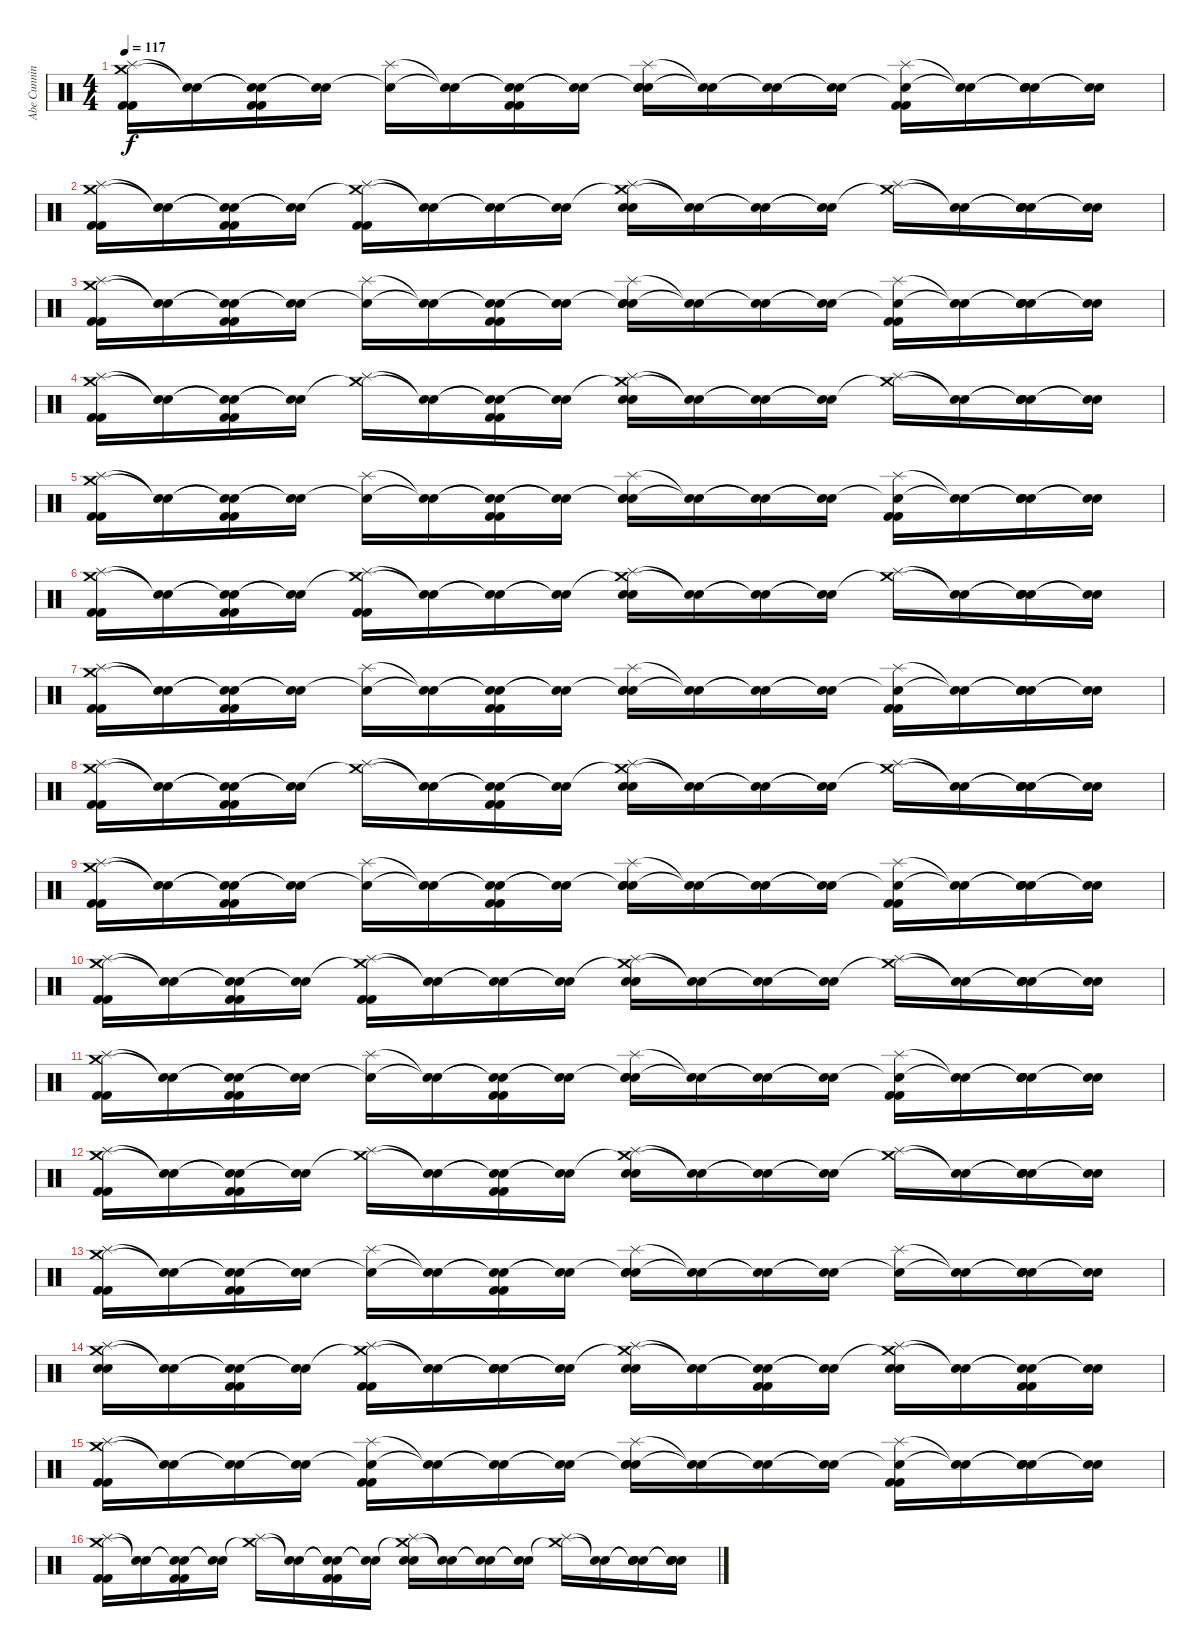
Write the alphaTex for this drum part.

\track ("Abe Cunningham" "Abe Cunnin") {instrument percussion}
\staff {score}
\articulation defaults
\ts (4 4)
\tempo 117
\clef neutral
\ks c
("Splash (hit)" "Crash medium (hit)" "Kick (hit) 2" "Kick (hit) 2").16{dy f} ("Snare (hit)"{t} "Snare (hit)"{t}).16 ("Snare (hit)"{t} "Snare (hit)"{t} "Kick (hit) 2" "Kick (hit) 2").16 ("Snare (hit)"{t} "Snare (hit)"{t}).16 ("Splash (hit)" "Snare (hit)"{t}).16 ("Snare (hit)"{t} "Snare (hit)"{t}).16 ("Snare (hit)"{t} "Snare (hit)"{t} "Kick (hit) 2" "Kick (hit) 2").16 ("Snare (hit)"{t} "Snare (hit)"{t}).16 ("Splash (hit)" "Snare (hit)"{t} "Electric Snare (hit)" "Electric Snare (hit)").16 ("Snare (hit)"{t} "Snare (hit)"{t}).16 ("Snare (hit)"{t} "Snare (hit)"{t}).16 ("Snare (hit)"{t} "Snare (hit)"{t}).16 ("Splash (hit)" "Snare (hit)"{t} "Kick (hit) 2" "Kick (hit) 2").16 ("Snare (hit)"{t} "Snare (hit)"{t}).16 ("Snare (hit)"{t} "Snare (hit)"{t} "Electric Snare (hit)" "Electric Snare (hit)").16 ("Snare (hit)"{t} "Snare (hit)"{t}).16 |
("Splash (hit)" "Crash medium (hit)" "Kick (hit) 2" "Kick (hit) 2").16 ("Snare (hit)"{t} "Snare (hit)"{t}).16 ("Snare (hit)"{t} "Snare (hit)"{t} "Kick (hit) 2" "Kick (hit) 2").16 ("Snare (hit)"{t} "Snare (hit)"{t}).16 ("Splash (hit)" "Crash medium (hit)"{t} "Kick (hit) 2" "Kick (hit) 2").16 ("Snare (hit)"{t} "Snare (hit)"{t}).16 ("Snare (hit)"{t} "Snare (hit)"{t}).16 ("Snare (hit)"{t} "Snare (hit)"{t}).16 ("Splash (hit)" "Crash medium (hit)"{t} "Electric Snare (hit)" "Electric Snare (hit)").16 ("Snare (hit)"{t} "Snare (hit)"{t}).16 ("Snare (hit)"{t} "Snare (hit)"{t}).16 ("Snare (hit)"{t} "Snare (hit)"{t}).16 ("Splash (hit)" "Crash medium (hit)"{t}).16 ("Snare (hit)"{t} "Snare (hit)"{t}).16 ("Snare (hit)"{t} "Snare (hit)"{t} "Electric Snare (hit)" "Electric Snare (hit)").16 ("Snare (hit)"{t} "Snare (hit)"{t}).16 |
("Splash (hit)" "Crash medium (hit)" "Kick (hit) 2" "Kick (hit) 2").16 ("Snare (hit)"{t} "Snare (hit)"{t}).16 ("Snare (hit)"{t} "Snare (hit)"{t} "Kick (hit) 2" "Kick (hit) 2").16 ("Snare (hit)"{t} "Snare (hit)"{t}).16 ("Splash (hit)" "Snare (hit)"{t}).16 ("Snare (hit)"{t} "Snare (hit)"{t}).16 ("Snare (hit)"{t} "Snare (hit)"{t} "Kick (hit) 2" "Kick (hit) 2").16 ("Snare (hit)"{t} "Snare (hit)"{t}).16 ("Splash (hit)" "Snare (hit)"{t} "Electric Snare (hit)" "Electric Snare (hit)").16 ("Snare (hit)"{t} "Snare (hit)"{t}).16 ("Snare (hit)"{t} "Snare (hit)"{t}).16 ("Snare (hit)"{t} "Snare (hit)"{t}).16 ("Splash (hit)" "Snare (hit)"{t} "Kick (hit) 2" "Kick (hit) 2").16 ("Snare (hit)"{t} "Snare (hit)"{t}).16 ("Snare (hit)"{t} "Snare (hit)"{t} "Electric Snare (hit)" "Electric Snare (hit)").16 ("Snare (hit)"{t} "Snare (hit)"{t}).16 |
("Splash (hit)" "Crash medium (hit)" "Kick (hit) 2" "Kick (hit) 2").16 ("Snare (hit)"{t} "Snare (hit)"{t}).16 ("Snare (hit)"{t} "Snare (hit)"{t} "Kick (hit) 2" "Kick (hit) 2").16 ("Snare (hit)"{t} "Snare (hit)"{t}).16 ("Splash (hit)" "Crash medium (hit)"{t}).16 ("Snare (hit)"{t} "Snare (hit)"{t}).16 ("Snare (hit)"{t} "Snare (hit)"{t} "Kick (hit) 2" "Kick (hit) 2").16 ("Snare (hit)"{t} "Snare (hit)"{t}).16 ("Splash (hit)" "Crash medium (hit)"{t} "Electric Snare (hit)" "Electric Snare (hit)").16 ("Snare (hit)"{t} "Snare (hit)"{t}).16 ("Snare (hit)"{t} "Snare (hit)"{t}).16 ("Snare (hit)"{t} "Snare (hit)"{t}).16 ("Splash (hit)" "Crash medium (hit)"{t}).16 ("Snare (hit)"{t} "Snare (hit)"{t}).16 ("Snare (hit)"{t} "Snare (hit)"{t} "Electric Snare (hit)" "Electric Snare (hit)").16 ("Snare (hit)"{t} "Snare (hit)"{t}).16 |
("Splash (hit)" "Crash medium (hit)" "Kick (hit) 2" "Kick (hit) 2").16 ("Snare (hit)"{t} "Snare (hit)"{t}).16 ("Snare (hit)"{t} "Snare (hit)"{t} "Kick (hit) 2" "Kick (hit) 2").16 ("Snare (hit)"{t} "Snare (hit)"{t}).16 ("Splash (hit)" "Snare (hit)"{t}).16 ("Snare (hit)"{t} "Snare (hit)"{t}).16 ("Snare (hit)"{t} "Snare (hit)"{t} "Kick (hit) 2" "Kick (hit) 2").16 ("Snare (hit)"{t} "Snare (hit)"{t}).16 ("Splash (hit)" "Snare (hit)"{t} "Electric Snare (hit)" "Electric Snare (hit)").16 ("Snare (hit)"{t} "Snare (hit)"{t}).16 ("Snare (hit)"{t} "Snare (hit)"{t}).16 ("Snare (hit)"{t} "Snare (hit)"{t}).16 ("Splash (hit)" "Snare (hit)"{t} "Kick (hit) 2" "Kick (hit) 2").16 ("Snare (hit)"{t} "Snare (hit)"{t}).16 ("Snare (hit)"{t} "Snare (hit)"{t} "Electric Snare (hit)" "Electric Snare (hit)").16 ("Snare (hit)"{t} "Snare (hit)"{t}).16 |
("Splash (hit)" "Crash medium (hit)" "Kick (hit) 2" "Kick (hit) 2").16 ("Snare (hit)"{t} "Snare (hit)"{t}).16 ("Snare (hit)"{t} "Snare (hit)"{t} "Kick (hit) 2" "Kick (hit) 2").16 ("Snare (hit)"{t} "Snare (hit)"{t}).16 ("Splash (hit)" "Crash medium (hit)"{t} "Kick (hit) 2" "Kick (hit) 2").16 ("Snare (hit)"{t} "Snare (hit)"{t}).16 ("Snare (hit)"{t} "Snare (hit)"{t}).16 ("Snare (hit)"{t} "Snare (hit)"{t}).16 ("Splash (hit)" "Crash medium (hit)"{t} "Electric Snare (hit)" "Electric Snare (hit)").16 ("Snare (hit)"{t} "Snare (hit)"{t}).16 ("Snare (hit)"{t} "Snare (hit)"{t}).16 ("Snare (hit)"{t} "Snare (hit)"{t}).16 ("Splash (hit)" "Crash medium (hit)"{t}).16 ("Snare (hit)"{t} "Snare (hit)"{t}).16 ("Snare (hit)"{t} "Snare (hit)"{t} "Electric Snare (hit)" "Electric Snare (hit)").16 ("Snare (hit)"{t} "Snare (hit)"{t}).16 |
("Splash (hit)" "Crash medium (hit)" "Kick (hit) 2" "Kick (hit) 2").16 ("Snare (hit)"{t} "Snare (hit)"{t}).16 ("Snare (hit)"{t} "Snare (hit)"{t} "Kick (hit) 2" "Kick (hit) 2").16 ("Snare (hit)"{t} "Snare (hit)"{t}).16 ("Splash (hit)" "Snare (hit)"{t}).16 ("Snare (hit)"{t} "Snare (hit)"{t}).16 ("Snare (hit)"{t} "Snare (hit)"{t} "Kick (hit) 2" "Kick (hit) 2").16 ("Snare (hit)"{t} "Snare (hit)"{t}).16 ("Splash (hit)" "Snare (hit)"{t} "Electric Snare (hit)" "Electric Snare (hit)").16 ("Snare (hit)"{t} "Snare (hit)"{t}).16 ("Snare (hit)"{t} "Snare (hit)"{t}).16 ("Snare (hit)"{t} "Snare (hit)"{t}).16 ("Splash (hit)" "Snare (hit)"{t} "Kick (hit) 2" "Kick (hit) 2").16 ("Snare (hit)"{t} "Snare (hit)"{t}).16 ("Snare (hit)"{t} "Snare (hit)"{t} "Electric Snare (hit)" "Electric Snare (hit)").16 ("Snare (hit)"{t} "Snare (hit)"{t}).16 |
("Splash (hit)" "Crash medium (hit)" "Kick (hit) 2" "Kick (hit) 2").16 ("Snare (hit)"{t} "Snare (hit)"{t}).16 ("Snare (hit)"{t} "Snare (hit)"{t} "Kick (hit) 2" "Kick (hit) 2").16 ("Snare (hit)"{t} "Snare (hit)"{t}).16 ("Splash (hit)" "Crash medium (hit)"{t}).16 ("Snare (hit)"{t} "Snare (hit)"{t}).16 ("Snare (hit)"{t} "Snare (hit)"{t} "Kick (hit) 2" "Kick (hit) 2").16 ("Snare (hit)"{t} "Snare (hit)"{t}).16 ("Splash (hit)" "Crash medium (hit)"{t} "Electric Snare (hit)" "Electric Snare (hit)").16 ("Snare (hit)"{t} "Snare (hit)"{t}).16 ("Snare (hit)"{t} "Snare (hit)"{t}).16 ("Snare (hit)"{t} "Snare (hit)"{t}).16 ("Splash (hit)" "Crash medium (hit)"{t}).16 ("Snare (hit)"{t} "Snare (hit)"{t}).16 ("Snare (hit)"{t} "Snare (hit)"{t} "Electric Snare (hit)" "Electric Snare (hit)").16 ("Snare (hit)"{t} "Snare (hit)"{t}).16 |
("Splash (hit)" "Crash medium (hit)" "Kick (hit) 2" "Kick (hit) 2").16 ("Snare (hit)"{t} "Snare (hit)"{t}).16 ("Snare (hit)"{t} "Snare (hit)"{t} "Kick (hit) 2" "Kick (hit) 2").16 ("Snare (hit)"{t} "Snare (hit)"{t}).16 ("Splash (hit)" "Snare (hit)"{t}).16 ("Snare (hit)"{t} "Snare (hit)"{t}).16 ("Snare (hit)"{t} "Snare (hit)"{t} "Kick (hit) 2" "Kick (hit) 2").16 ("Snare (hit)"{t} "Snare (hit)"{t}).16 ("Splash (hit)" "Snare (hit)"{t} "Electric Snare (hit)" "Electric Snare (hit)").16 ("Snare (hit)"{t} "Snare (hit)"{t}).16 ("Snare (hit)"{t} "Snare (hit)"{t}).16 ("Snare (hit)"{t} "Snare (hit)"{t}).16 ("Splash (hit)" "Snare (hit)"{t} "Kick (hit) 2" "Kick (hit) 2").16 ("Snare (hit)"{t} "Snare (hit)"{t}).16 ("Snare (hit)"{t} "Snare (hit)"{t} "Electric Snare (hit)" "Electric Snare (hit)").16 ("Snare (hit)"{t} "Snare (hit)"{t}).16 |
("Splash (hit)" "Crash medium (hit)" "Kick (hit) 2" "Kick (hit) 2").16 ("Snare (hit)"{t} "Snare (hit)"{t}).16 ("Snare (hit)"{t} "Snare (hit)"{t} "Kick (hit) 2" "Kick (hit) 2").16 ("Snare (hit)"{t} "Snare (hit)"{t}).16 ("Splash (hit)" "Crash medium (hit)"{t} "Kick (hit) 2" "Kick (hit) 2").16 ("Snare (hit)"{t} "Snare (hit)"{t}).16 ("Snare (hit)"{t} "Snare (hit)"{t}).16 ("Snare (hit)"{t} "Snare (hit)"{t}).16 ("Splash (hit)" "Crash medium (hit)"{t} "Electric Snare (hit)" "Electric Snare (hit)").16 ("Snare (hit)"{t} "Snare (hit)"{t}).16 ("Snare (hit)"{t} "Snare (hit)"{t}).16 ("Snare (hit)"{t} "Snare (hit)"{t}).16 ("Splash (hit)" "Crash medium (hit)"{t}).16 ("Snare (hit)"{t} "Snare (hit)"{t}).16 ("Snare (hit)"{t} "Snare (hit)"{t} "Electric Snare (hit)" "Electric Snare (hit)").16 ("Snare (hit)"{t} "Snare (hit)"{t}).16 |
("Splash (hit)" "Crash medium (hit)" "Kick (hit) 2" "Kick (hit) 2").16 ("Snare (hit)"{t} "Snare (hit)"{t}).16 ("Snare (hit)"{t} "Snare (hit)"{t} "Kick (hit) 2" "Kick (hit) 2").16 ("Snare (hit)"{t} "Snare (hit)"{t}).16 ("Splash (hit)" "Snare (hit)"{t}).16 ("Snare (hit)"{t} "Snare (hit)"{t}).16 ("Snare (hit)"{t} "Snare (hit)"{t} "Kick (hit) 2" "Kick (hit) 2").16 ("Snare (hit)"{t} "Snare (hit)"{t}).16 ("Splash (hit)" "Snare (hit)"{t} "Electric Snare (hit)" "Electric Snare (hit)").16 ("Snare (hit)"{t} "Snare (hit)"{t}).16 ("Snare (hit)"{t} "Snare (hit)"{t}).16 ("Snare (hit)"{t} "Snare (hit)"{t}).16 ("Splash (hit)" "Snare (hit)"{t} "Kick (hit) 2" "Kick (hit) 2").16 ("Snare (hit)"{t} "Snare (hit)"{t}).16 ("Snare (hit)"{t} "Snare (hit)"{t} "Electric Snare (hit)" "Electric Snare (hit)").16 ("Snare (hit)"{t} "Snare (hit)"{t}).16 |
("Splash (hit)" "Crash medium (hit)" "Kick (hit) 2" "Kick (hit) 2").16 ("Snare (hit)"{t} "Snare (hit)"{t}).16 ("Snare (hit)"{t} "Snare (hit)"{t} "Kick (hit) 2" "Kick (hit) 2").16 ("Snare (hit)"{t} "Snare (hit)"{t}).16 ("Splash (hit)" "Crash medium (hit)"{t}).16 ("Snare (hit)"{t} "Snare (hit)"{t}).16 ("Snare (hit)"{t} "Snare (hit)"{t} "Kick (hit) 2" "Kick (hit) 2").16 ("Snare (hit)"{t} "Snare (hit)"{t}).16 ("Splash (hit)" "Crash medium (hit)"{t} "Electric Snare (hit)" "Electric Snare (hit)").16 ("Snare (hit)"{t} "Snare (hit)"{t}).16 ("Snare (hit)"{t} "Snare (hit)"{t}).16 ("Snare (hit)"{t} "Snare (hit)"{t}).16 ("Splash (hit)" "Crash medium (hit)"{t}).16 ("Snare (hit)"{t} "Snare (hit)"{t}).16 ("Snare (hit)"{t} "Snare (hit)"{t} "Electric Snare (hit)" "Electric Snare (hit)").16 ("Snare (hit)"{t} "Snare (hit)"{t}).16 |
("Splash (hit)" "Crash medium (hit)" "Kick (hit) 2" "Kick (hit) 2").16 ("Snare (hit)"{t} "Snare (hit)"{t}).16 ("Snare (hit)"{t} "Snare (hit)"{t} "Kick (hit) 2" "Kick (hit) 2").16 ("Snare (hit)"{t} "Snare (hit)"{t}).16 ("Splash (hit)" "Snare (hit)"{t}).16 ("Snare (hit)"{t} "Snare (hit)"{t}).16 ("Snare (hit)"{t} "Snare (hit)"{t} "Kick (hit) 2" "Kick (hit) 2").16 ("Snare (hit)"{t} "Snare (hit)"{t}).16 ("Splash (hit)" "Snare (hit)"{t} "Electric Snare (hit)" "Electric Snare (hit)").16 ("Snare (hit)"{t} "Snare (hit)"{t}).16 ("Snare (hit)"{t} "Snare (hit)"{t}).16 ("Snare (hit)"{t} "Snare (hit)"{t}).16 ("Splash (hit)" "Snare (hit)"{t}).16 ("Snare (hit)"{t} "Snare (hit)"{t}).16 ("Snare (hit)"{t} "Snare (hit)"{t} "Electric Snare (hit)" "Electric Snare (hit)").16 ("Snare (hit)"{t} "Snare (hit)"{t}).16 |
("Splash (hit)" "Crash medium (hit)" "Electric Snare (hit)" "Electric Snare (hit)").16 ("Snare (hit)"{t} "Snare (hit)"{t}).16 ("Snare (hit)"{t} "Snare (hit)"{t} "Kick (hit) 2" "Kick (hit) 2").16 ("Snare (hit)"{t} "Snare (hit)"{t}).16 ("Splash (hit)" "Crash medium (hit)"{t} "Kick (hit) 2" "Kick (hit) 2").16 ("Snare (hit)"{t} "Snare (hit)"{t}).16 ("Snare (hit)"{t} "Snare (hit)"{t} "Electric Snare (hit)" "Electric Snare (hit)").16 ("Snare (hit)"{t} "Snare (hit)"{t}).16 ("Splash (hit)" "Crash medium (hit)"{t} "Electric Snare (hit)" "Electric Snare (hit)").16 ("Snare (hit)"{t} "Snare (hit)"{t}).16 ("Snare (hit)"{t} "Snare (hit)"{t} "Kick (hit) 2" "Kick (hit) 2").16 ("Snare (hit)"{t} "Snare (hit)"{t}).16 ("Splash (hit)" "Crash medium (hit)"{t} "Electric Snare (hit)" "Electric Snare (hit)").16 ("Snare (hit)"{t} "Snare (hit)"{t}).16 ("Snare (hit)"{t} "Snare (hit)"{t} "Kick (hit) 2" "Kick (hit) 2").16 ("Snare (hit)"{t} "Snare (hit)"{t}).16 |
("Splash (hit)" "Crash medium (hit)" "Kick (hit) 2" "Kick (hit) 2").16 ("Snare (hit)"{t} "Snare (hit)"{t}).16 ("Snare (hit)"{t} "Snare (hit)"{t}).16 ("Snare (hit)"{t} "Snare (hit)"{t}).16 ("Splash (hit)" "Snare (hit)"{t} "Kick (hit) 2" "Kick (hit) 2").16 ("Snare (hit)"{t} "Snare (hit)"{t}).16 ("Snare (hit)"{t} "Snare (hit)"{t}).16 ("Snare (hit)"{t} "Snare (hit)"{t}).16 ("Splash (hit)" "Snare (hit)"{t} "Electric Snare (hit)" "Electric Snare (hit)").16 ("Snare (hit)"{t} "Snare (hit)"{t}).16 ("Snare (hit)"{t} "Snare (hit)"{t}).16 ("Snare (hit)"{t} "Snare (hit)"{t}).16 ("Splash (hit)" "Snare (hit)"{t} "Kick (hit) 2" "Kick (hit) 2").16 ("Snare (hit)"{t} "Snare (hit)"{t}).16 ("Snare (hit)"{t} "Snare (hit)"{t} "Electric Snare (hit)" "Electric Snare (hit)").16 ("Snare (hit)"{t} "Snare (hit)"{t}).16 |
("Splash (hit)" "Crash medium (hit)" "Kick (hit) 2" "Kick (hit) 2").16 ("Snare (hit)"{t} "Snare (hit)"{t}).16 ("Snare (hit)"{t} "Snare (hit)"{t} "Kick (hit) 2" "Kick (hit) 2").16 ("Snare (hit)"{t} "Snare (hit)"{t}).16 ("Splash (hit)" "Crash medium (hit)"{t}).16 ("Snare (hit)"{t} "Snare (hit)"{t}).16 ("Snare (hit)"{t} "Snare (hit)"{t} "Kick (hit) 2" "Kick (hit) 2").16 ("Snare (hit)"{t} "Snare (hit)"{t}).16 ("Splash (hit)" "Crash medium (hit)"{t} "Electric Snare (hit)" "Electric Snare (hit)").16 ("Snare (hit)"{t} "Snare (hit)"{t}).16 ("Snare (hit)"{t} "Snare (hit)"{t}).16 ("Snare (hit)"{t} "Snare (hit)"{t}).16 ("Splash (hit)" "Crash medium (hit)"{t}).16 ("Snare (hit)"{t} "Snare (hit)"{t}).16 ("Snare (hit)"{t} "Snare (hit)"{t} "Electric Snare (hit)" "Electric Snare (hit)").16 ("Snare (hit)"{t} "Snare (hit)"{t} "Electric Snare (hit)" "Electric Snare (hit)").16
